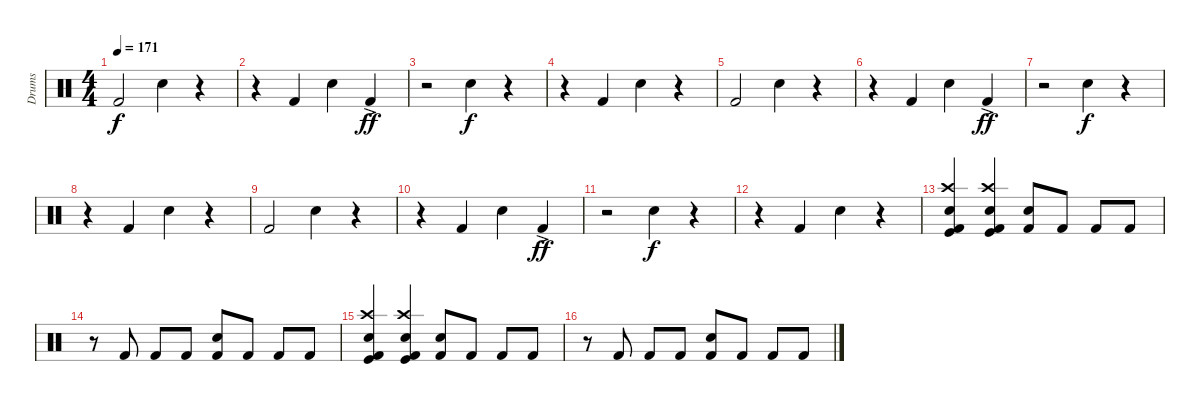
\track ("Drums" "Drums") {instrument percussion}
\staff {score}
\articulation defaults
\ts (4 4)
\tempo 171
\clef neutral
\ks c "Kick (hit) 2".2{dy f} "Snare (hit) 2".4
r.4 |
r.4 "Kick (hit) 2".4 "Snare (hit) 2".4 "Kick (hit) 2"{ac}.4{dy ff} |
r.2 "Snare (hit) 2".4{dy f} r.4 |
r.4 "Kick (hit) 2".4 "Snare (hit) 2".4 r.4 |
"Kick (hit) 2".2 "Snare (hit) 2".4 r.4 |
r.4 "Kick (hit) 2".4 "Snare (hit) 2".4 "Kick (hit) 2"{ac}.4{dy ff} |
r.2 "Snare (hit) 2".4{dy f} r.4 |
r.4 "Kick (hit) 2".4 "Snare (hit) 2".4 r.4 |
"Kick (hit) 2".2 "Snare (hit) 2".4 r.4 |
r.4 "Kick (hit) 2".4 "Snare (hit) 2".4 "Kick (hit) 2"{ac}.4{dy ff} |
r.2 "Snare (hit) 2".4{dy f} r.4 |
r.4 "Kick (hit) 2".4 "Snare (hit) 2".4 r.4 |
("Crash high (hit)" "Kick (hit) 2" "Snare (hit) 2" "Kick (hit)").4 ("Crash high (hit)" "Kick (hit) 2" "Snare (hit) 2" "Kick (hit)").4 ("Snare (hit) 2" "Kick (hit) 2").8 "Kick (hit) 2".8 "Kick (hit) 2".8 "Kick (hit) 2".8 |
r.8 "Kick (hit) 2".8 "Kick (hit) 2".8 "Kick (hit) 2".8 ("Snare (hit) 2" "Kick (hit) 2").8 "Kick (hit) 2".8 "Kick (hit) 2".8 "Kick (hit) 2".8 |
("Crash high (hit)" "Kick (hit) 2" "Snare (hit) 2" "Kick (hit)").4 ("Crash high (hit)" "Kick (hit) 2" "Snare (hit) 2" "Kick (hit)").4 ("Snare (hit) 2" "Kick (hit) 2").8 "Kick (hit) 2".8 "Kick (hit) 2".8 "Kick (hit) 2".8 |
r.8 "Kick (hit) 2".8 "Kick (hit) 2".8 "Kick (hit) 2".8 ("Snare (hit) 2" "Kick (hit) 2").8 "Kick (hit) 2".8 "Kick (hit) 2".8 "Kick (hit) 2".8
